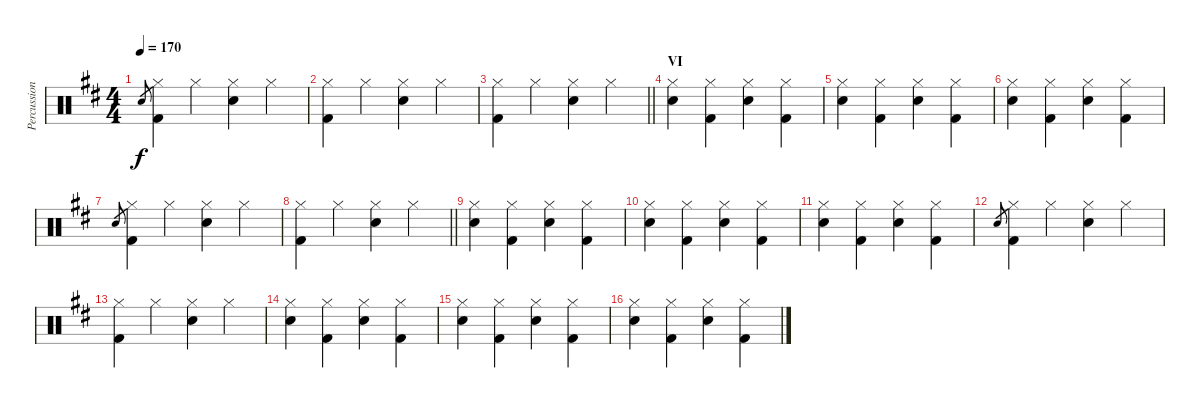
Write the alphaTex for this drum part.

\track ("Percussion [Nick Mason]" "Percussion") {instrument percussion}
\staff {score}
\articulation defaults
\ts (4 4)
\tempo 170
\clef neutral
\ks d "Snare (hit) 2".8{gr dy f}
("Hi-Hat (closed)" "Kick (hit) 2").4 "Hi-Hat (closed)".4 ("Hi-Hat (closed)" "Snare (hit) 2").4 "Hi-Hat (closed)".4 |
("Hi-Hat (closed)" "Kick (hit) 2").4 "Hi-Hat (closed)".4 ("Hi-Hat (closed)" "Snare (hit) 2").4 "Hi-Hat (closed)".4 |
\barLineRight lightlight
("Hi-Hat (closed)" "Kick (hit) 2").4 "Hi-Hat (closed)".4 ("Hi-Hat (closed)" "Snare (hit) 2").4 "Hi-Hat (closed)".4 |
\section ("" "VI")
("Hi-Hat (closed)" "Snare (hit) 2").4 ("Hi-Hat (closed)" "Kick (hit) 2").4 ("Hi-Hat (closed)" "Snare (hit) 2").4 ("Hi-Hat (closed)" "Kick (hit) 2").4 |
("Hi-Hat (closed)" "Snare (hit) 2").4 ("Hi-Hat (closed)" "Kick (hit) 2").4 ("Hi-Hat (closed)" "Snare (hit) 2").4 ("Hi-Hat (closed)" "Kick (hit) 2").4 |
("Hi-Hat (closed)" "Snare (hit) 2").4 ("Hi-Hat (closed)" "Kick (hit) 2").4 ("Hi-Hat (closed)" "Snare (hit) 2").4 ("Hi-Hat (closed)" "Kick (hit) 2").4 |
"Snare (hit) 2".8{gr} ("Hi-Hat (closed)" "Kick (hit) 2").4 "Hi-Hat (closed)".4 ("Hi-Hat (closed)" "Snare (hit) 2").4 "Hi-Hat (closed)".4 |
\barLineRight lightlight
("Hi-Hat (closed)" "Kick (hit) 2").4 "Hi-Hat (closed)".4 ("Hi-Hat (closed)" "Snare (hit) 2").4 "Hi-Hat (closed)".4 |
("Hi-Hat (closed)" "Snare (hit) 2").4 ("Hi-Hat (closed)" "Kick (hit) 2").4 ("Hi-Hat (closed)" "Snare (hit) 2").4 ("Hi-Hat (closed)" "Kick (hit) 2").4 |
("Hi-Hat (closed)" "Snare (hit) 2").4 ("Hi-Hat (closed)" "Kick (hit) 2").4 ("Hi-Hat (closed)" "Snare (hit) 2").4 ("Hi-Hat (closed)" "Kick (hit) 2").4 |
("Hi-Hat (closed)" "Snare (hit) 2").4 ("Hi-Hat (closed)" "Kick (hit) 2").4 ("Hi-Hat (closed)" "Snare (hit) 2").4 ("Hi-Hat (closed)" "Kick (hit) 2").4 |
"Snare (hit) 2".8{gr} ("Hi-Hat (closed)" "Kick (hit) 2").4 "Hi-Hat (closed)".4 ("Hi-Hat (closed)" "Snare (hit) 2").4 "Hi-Hat (closed)".4 |
("Hi-Hat (closed)" "Kick (hit) 2").4 "Hi-Hat (closed)".4 ("Hi-Hat (closed)" "Snare (hit) 2").4 "Hi-Hat (closed)".4 |
("Hi-Hat (closed)" "Snare (hit) 2").4 ("Hi-Hat (closed)" "Kick (hit) 2").4 ("Hi-Hat (closed)" "Snare (hit) 2").4 ("Hi-Hat (closed)" "Kick (hit) 2").4 |
("Hi-Hat (closed)" "Snare (hit) 2").4 ("Hi-Hat (closed)" "Kick (hit) 2").4 ("Hi-Hat (closed)" "Snare (hit) 2").4 ("Hi-Hat (closed)" "Kick (hit) 2").4 |
("Hi-Hat (closed)" "Snare (hit) 2").4 ("Hi-Hat (closed)" "Kick (hit) 2").4 ("Hi-Hat (closed)" "Snare (hit) 2").4 ("Hi-Hat (closed)" "Kick (hit) 2").4
